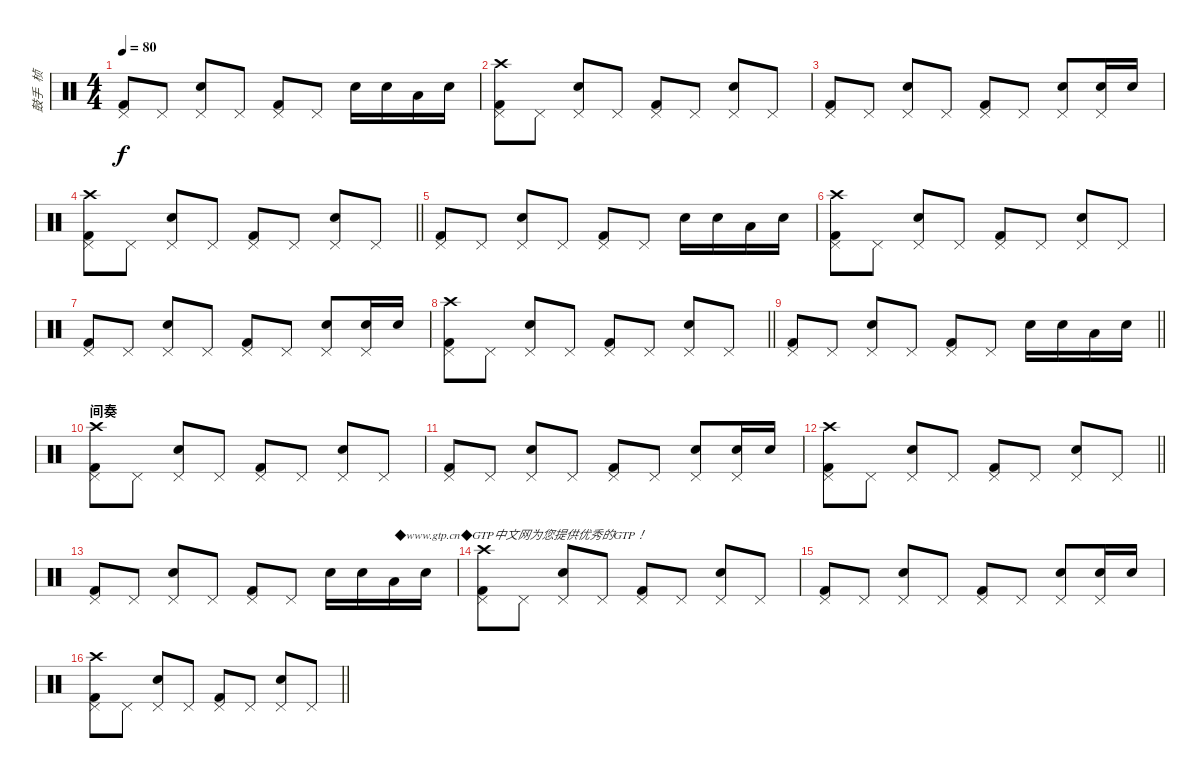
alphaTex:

\track ("鼓手  桢" "鼓手  桢") {instrument percussion}
\staff {score}
\articulation defaults
\ts (4 4)
\tempo 80
\clef neutral
\ks c
("Pedal Hi-Hat (hit)" "Kick (hit) 2").8{dy f} "Pedal Hi-Hat (hit)".8 ("Pedal Hi-Hat (hit)" "Snare (hit) 2").8 "Pedal Hi-Hat (hit)".8 ("Pedal Hi-Hat (hit)" "Kick (hit) 2").8 "Pedal Hi-Hat (hit)".8 "Snare (hit) 2".16 "Snare (hit) 2".16 "Low Tom (hit)".16 "Snare (hit) 2".16 |
("Pedal Hi-Hat (hit)" "Kick (hit) 2" "Crash high (hit)").8 "Pedal Hi-Hat (hit)".8 ("Pedal Hi-Hat (hit)" "Snare (hit) 2").8 "Pedal Hi-Hat (hit)".8 ("Pedal Hi-Hat (hit)" "Kick (hit) 2").8 "Pedal Hi-Hat (hit)".8 ("Pedal Hi-Hat (hit)" "Snare (hit) 2").8 "Pedal Hi-Hat (hit)".8 |
("Pedal Hi-Hat (hit)" "Kick (hit) 2").8 "Pedal Hi-Hat (hit)".8 ("Pedal Hi-Hat (hit)" "Snare (hit) 2").8 "Pedal Hi-Hat (hit)".8 ("Pedal Hi-Hat (hit)" "Kick (hit) 2").8 "Pedal Hi-Hat (hit)".8 ("Pedal Hi-Hat (hit)" "Snare (hit) 2").8 ("Pedal Hi-Hat (hit)" "Snare (hit) 2").16 "Snare (hit) 2".16 |
\barLineRight lightlight
("Pedal Hi-Hat (hit)" "Kick (hit) 2" "Crash high (hit)").8 "Pedal Hi-Hat (hit)".8 ("Pedal Hi-Hat (hit)" "Snare (hit) 2").8 "Pedal Hi-Hat (hit)".8 ("Pedal Hi-Hat (hit)" "Kick (hit) 2").8 "Pedal Hi-Hat (hit)".8 ("Pedal Hi-Hat (hit)" "Snare (hit) 2").8 "Pedal Hi-Hat (hit)".8 |
("Pedal Hi-Hat (hit)" "Kick (hit) 2").8 "Pedal Hi-Hat (hit)".8 ("Pedal Hi-Hat (hit)" "Snare (hit) 2").8 "Pedal Hi-Hat (hit)".8 ("Pedal Hi-Hat (hit)" "Kick (hit) 2").8 "Pedal Hi-Hat (hit)".8 "Snare (hit) 2".16 "Snare (hit) 2".16 "Low Tom (hit)".16 "Snare (hit) 2".16 |
("Pedal Hi-Hat (hit)" "Kick (hit) 2" "Crash high (hit)").8 "Pedal Hi-Hat (hit)".8 ("Pedal Hi-Hat (hit)" "Snare (hit) 2").8 "Pedal Hi-Hat (hit)".8 ("Pedal Hi-Hat (hit)" "Kick (hit) 2").8 "Pedal Hi-Hat (hit)".8 ("Pedal Hi-Hat (hit)" "Snare (hit) 2").8 "Pedal Hi-Hat (hit)".8 |
("Pedal Hi-Hat (hit)" "Kick (hit) 2").8 "Pedal Hi-Hat (hit)".8 ("Pedal Hi-Hat (hit)" "Snare (hit) 2").8 "Pedal Hi-Hat (hit)".8 ("Pedal Hi-Hat (hit)" "Kick (hit) 2").8 "Pedal Hi-Hat (hit)".8 ("Pedal Hi-Hat (hit)" "Snare (hit) 2").8 ("Pedal Hi-Hat (hit)" "Snare (hit) 2").16 "Snare (hit) 2".16 |
\barLineRight lightlight
("Pedal Hi-Hat (hit)" "Kick (hit) 2" "Crash high (hit)").8 "Pedal Hi-Hat (hit)".8 ("Pedal Hi-Hat (hit)" "Snare (hit) 2").8 "Pedal Hi-Hat (hit)".8 ("Pedal Hi-Hat (hit)" "Kick (hit) 2").8 "Pedal Hi-Hat (hit)".8 ("Pedal Hi-Hat (hit)" "Snare (hit) 2").8 "Pedal Hi-Hat (hit)".8 |
\barLineRight lightlight
("Pedal Hi-Hat (hit)" "Kick (hit) 2").8 "Pedal Hi-Hat (hit)".8 ("Pedal Hi-Hat (hit)" "Snare (hit) 2").8 "Pedal Hi-Hat (hit)".8 ("Pedal Hi-Hat (hit)" "Kick (hit) 2").8 "Pedal Hi-Hat (hit)".8 "Snare (hit) 2".16 "Snare (hit) 2".16 "Low Tom (hit)".16 "Snare (hit) 2".16 |
\section ("" "间奏")
("Pedal Hi-Hat (hit)" "Kick (hit) 2" "Crash high (hit)").8 "Pedal Hi-Hat (hit)".8 ("Pedal Hi-Hat (hit)" "Snare (hit) 2").8 "Pedal Hi-Hat (hit)".8 ("Pedal Hi-Hat (hit)" "Kick (hit) 2").8 "Pedal Hi-Hat (hit)".8 ("Pedal Hi-Hat (hit)" "Snare (hit) 2").8 "Pedal Hi-Hat (hit)".8 |
("Pedal Hi-Hat (hit)" "Kick (hit) 2").8 "Pedal Hi-Hat (hit)".8 ("Pedal Hi-Hat (hit)" "Snare (hit) 2").8 "Pedal Hi-Hat (hit)".8 ("Pedal Hi-Hat (hit)" "Kick (hit) 2").8 "Pedal Hi-Hat (hit)".8 ("Pedal Hi-Hat (hit)" "Snare (hit) 2").8 ("Pedal Hi-Hat (hit)" "Snare (hit) 2").16 "Snare (hit) 2".16 |
\barLineRight lightlight
("Pedal Hi-Hat (hit)" "Kick (hit) 2" "Crash high (hit)").8 "Pedal Hi-Hat (hit)".8 ("Pedal Hi-Hat (hit)" "Snare (hit) 2").8 "Pedal Hi-Hat (hit)".8 ("Pedal Hi-Hat (hit)" "Kick (hit) 2").8 "Pedal Hi-Hat (hit)".8 ("Pedal Hi-Hat (hit)" "Snare (hit) 2").8 "Pedal Hi-Hat (hit)".8 |
("Pedal Hi-Hat (hit)" "Kick (hit) 2").8 "Pedal Hi-Hat (hit)".8 ("Pedal Hi-Hat (hit)" "Snare (hit) 2").8 "Pedal Hi-Hat (hit)".8 ("Pedal Hi-Hat (hit)" "Kick (hit) 2").8 "Pedal Hi-Hat (hit)".8 "Snare (hit) 2".16 "Snare (hit) 2".16 "Low Tom (hit)".16{txt "◆www.gtp.cn◆GTP中文网为您提供优秀的GTP！"} "Snare (hit) 2".16 |
("Pedal Hi-Hat (hit)" "Kick (hit) 2" "Crash high (hit)").8 "Pedal Hi-Hat (hit)".8 ("Pedal Hi-Hat (hit)" "Snare (hit) 2").8 "Pedal Hi-Hat (hit)".8 ("Pedal Hi-Hat (hit)" "Kick (hit) 2").8 "Pedal Hi-Hat (hit)".8 ("Pedal Hi-Hat (hit)" "Snare (hit) 2").8 "Pedal Hi-Hat (hit)".8 |
("Pedal Hi-Hat (hit)" "Kick (hit) 2").8 "Pedal Hi-Hat (hit)".8 ("Pedal Hi-Hat (hit)" "Snare (hit) 2").8 "Pedal Hi-Hat (hit)".8 ("Pedal Hi-Hat (hit)" "Kick (hit) 2").8 "Pedal Hi-Hat (hit)".8 ("Pedal Hi-Hat (hit)" "Snare (hit) 2").8 ("Pedal Hi-Hat (hit)" "Snare (hit) 2").16 "Snare (hit) 2".16 |
\barLineRight lightlight
("Pedal Hi-Hat (hit)" "Kick (hit) 2" "Crash high (hit)").8 "Pedal Hi-Hat (hit)".8 ("Pedal Hi-Hat (hit)" "Snare (hit) 2").8 "Pedal Hi-Hat (hit)".8 ("Pedal Hi-Hat (hit)" "Kick (hit) 2").8 "Pedal Hi-Hat (hit)".8 ("Pedal Hi-Hat (hit)" "Snare (hit) 2").8 "Pedal Hi-Hat (hit)".8
